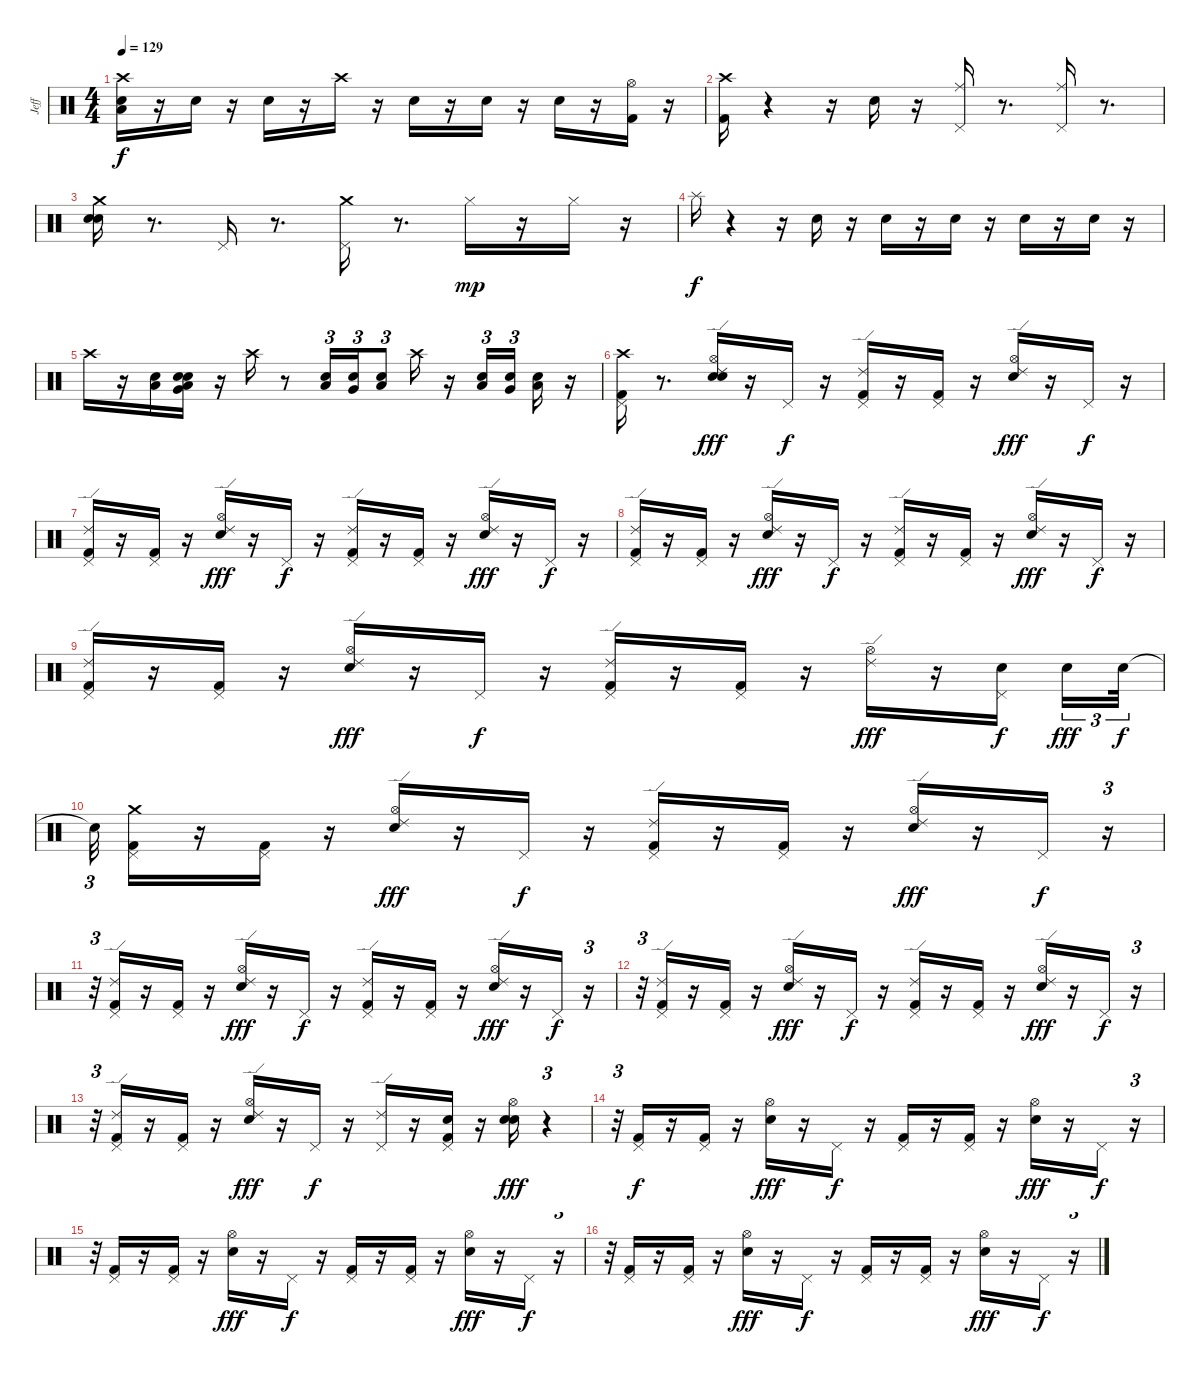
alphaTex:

\track ("Jeff" "Jeff") {instrument percussion}
\staff {score}
\articulation defaults
\ts (4 4)
\tempo 129
\clef neutral
\ks c
("Snare (hit) 2" "Low Tom (hit)" "Crash high (hit)").16{dy f} r.16 "Electric Snare (hit)".16 r.16 "Electric Snare (hit)".16 r.16 "Crash high (hit)".16 r.16 "Electric Snare (hit)".16 r.16 "Electric Snare (hit)".16 r.16 "Electric Snare (hit)".16 r.16 ("Kick (hit) 2" "Hi-Hat (open)").16 r.16 |
("Kick (hit) 2" "Crash high (hit)").16 r.4 r.16 "Electric Snare (hit)".16 r.16 ("Pedal Hi-Hat (hit)" "Ride (middle)").16 r.8{d} ("Pedal Hi-Hat (hit)" "Ride (middle)").16 r.8{d} |
("Snare (hit) 2" "Electric Snare (hit)" "Crash medium (hit)").16 r.8{d} "Pedal Hi-Hat (hit)".16 r.8{d} ("Pedal Hi-Hat (hit)" "Crash medium (hit)").16 r.8{d} "Hi-Hat (closed)".16{dy mp} r.16 "Hi-Hat (closed)".16 r.16 |
"Splash (hit)".16{dy f} r.4 r.16 "Snare (hit) 2".16 r.16 "Snare (hit) 2".16 r.16 "Snare (hit) 2".16 r.16 "Snare (hit) 2".16 r.16 "Snare (hit) 2".16 r.16 |
"Crash high (hit)".16 r.16 ("Snare (hit) 2" "Low Tom (hit)").16 ("Snare (hit) 2" "Very Low Tom (hit)" "Snare (hit) 2" "Low Floor Tom (hit)").16 r.16 "Crash high (hit)".16 r.8 ("Electric Snare (hit)" "Low Tom (hit)").16{tu (3 2)} ("Electric Snare (hit)" "Very Low Tom (hit)").16{tu (3 2)} ("Electric Snare (hit)" "Low Floor Tom (hit)").8{tu (3 2)} "Crash high (hit)".16 r.16 ("Snare (hit) 2" "Low Tom (hit)").16{tu (3 2)} ("Snare (hit) 2" "Very Low Tom (hit)").16{tu (3 2) beam splitsecondary} ("Snare (hit) 2" "Low Floor Tom (hit)").16 r.16 |
("Kick (hit) 2" "Pedal Hi-Hat (hit)" "Crash high (hit)").16 r.8{d} ("Snare (hit) 2" "Electric Snare (hit)" "Hi-Hat (open)" "Ride (edge) 2").16{dy fff} r.16 "Pedal Hi-Hat (hit)".16{dy f} r.16 ("Kick (hit) 2" "Pedal Hi-Hat (hit)" "Ride (edge) 2").16 r.16 ("Kick (hit) 2" "Pedal Hi-Hat (hit)").16 r.16 ("Electric Snare (hit)" "Hi-Hat (open)" "Ride (edge) 2").16{dy fff} r.16 "Pedal Hi-Hat (hit)".16{dy f} r.16 |
("Kick (hit) 2" "Pedal Hi-Hat (hit)" "Ride (edge) 2").16 r.16 ("Kick (hit) 2" "Pedal Hi-Hat (hit)").16 r.16 ("Electric Snare (hit)" "Hi-Hat (open)" "Ride (edge) 2").16{dy fff} r.16 "Pedal Hi-Hat (hit)".16{dy f} r.16 ("Kick (hit) 2" "Pedal Hi-Hat (hit)" "Ride (edge) 2").16 r.16 ("Kick (hit) 2" "Pedal Hi-Hat (hit)").16 r.16 ("Electric Snare (hit)" "Hi-Hat (open)" "Ride (edge) 2").16{dy fff} r.16 "Pedal Hi-Hat (hit)".16{dy f} r.16 |
("Kick (hit) 2" "Pedal Hi-Hat (hit)" "Ride (edge) 2").16 r.16 ("Kick (hit) 2" "Pedal Hi-Hat (hit)").16 r.16 ("Electric Snare (hit)" "Hi-Hat (open)" "Ride (edge) 2").16{dy fff} r.16 "Pedal Hi-Hat (hit)".16{dy f} r.16 ("Kick (hit) 2" "Pedal Hi-Hat (hit)" "Ride (edge) 2").16 r.16 ("Kick (hit) 2" "Pedal Hi-Hat (hit)").16 r.16 ("Electric Snare (hit)" "Hi-Hat (open)" "Ride (edge) 2").16{dy fff} r.16 "Pedal Hi-Hat (hit)".16{dy f} r.16 |
("Kick (hit) 2" "Pedal Hi-Hat (hit)" "Ride (edge) 2").16 r.16 ("Kick (hit) 2" "Pedal Hi-Hat (hit)").16 r.16 ("Electric Snare (hit)" "Hi-Hat (open)" "Ride (edge) 2").16{dy fff} r.16 "Pedal Hi-Hat (hit)".16{dy f} r.16 ("Kick (hit) 2" "Pedal Hi-Hat (hit)" "Ride (edge) 2").16 r.16 ("Kick (hit) 2" "Pedal Hi-Hat (hit)").16 r.16 ("Hi-Hat (open)" "Ride (edge) 2").16{dy fff} r.16 ("Electric Snare (hit)" "Pedal Hi-Hat (hit)").16{dy f beam splitsecondary} "Electric Snare (hit)".16{tu (3 2) dy fff} "Electric Snare (hit)".32{tu (3 2) dy f} |
"Snare (hit)"{t}.32{tu (3 2)} ("Kick (hit) 2" "Pedal Hi-Hat (hit)" "Crash medium (hit)").16 r.16 ("Kick (hit) 2" "Pedal Hi-Hat (hit)").16 r.16 ("Electric Snare (hit)" "Hi-Hat (open)" "Ride (edge) 2").16{dy fff} r.16 "Pedal Hi-Hat (hit)".16{dy f} r.16 ("Kick (hit) 2" "Pedal Hi-Hat (hit)" "Ride (edge) 2").16 r.16 ("Kick (hit) 2" "Pedal Hi-Hat (hit)").16 r.16 ("Electric Snare (hit)" "Hi-Hat (open)" "Ride (edge) 2").16{dy fff} r.16 "Pedal Hi-Hat (hit)".16{dy f} r.16{tu (3 2)} |
r.32{tu (3 2)} ("Kick (hit) 2" "Pedal Hi-Hat (hit)" "Ride (edge) 2").16 r.16 ("Kick (hit) 2" "Pedal Hi-Hat (hit)").16 r.16 ("Electric Snare (hit)" "Hi-Hat (open)" "Ride (edge) 2").16{dy fff} r.16 "Pedal Hi-Hat (hit)".16{dy f} r.16 ("Kick (hit) 2" "Pedal Hi-Hat (hit)" "Ride (edge) 2").16 r.16 ("Kick (hit) 2" "Pedal Hi-Hat (hit)").16 r.16 ("Electric Snare (hit)" "Hi-Hat (open)" "Ride (edge) 2").16{dy fff} r.16 "Pedal Hi-Hat (hit)".16{dy f} r.16{tu (3 2)} |
r.32{tu (3 2)} ("Kick (hit) 2" "Pedal Hi-Hat (hit)" "Ride (edge) 2").16 r.16 ("Kick (hit) 2" "Pedal Hi-Hat (hit)").16 r.16 ("Electric Snare (hit)" "Hi-Hat (open)" "Ride (edge) 2").16{dy fff} r.16 "Pedal Hi-Hat (hit)".16{dy f} r.16 ("Kick (hit) 2" "Pedal Hi-Hat (hit)" "Ride (edge) 2").16 r.16 ("Kick (hit) 2" "Pedal Hi-Hat (hit)").16 r.16 ("Electric Snare (hit)" "Hi-Hat (open)" "Ride (edge) 2").16{dy fff} r.16 "Pedal Hi-Hat (hit)".16{dy f} r.16{tu (3 2)} |
r.32{tu (3 2)} ("Kick (hit) 2" "Pedal Hi-Hat (hit)" "Ride (edge) 2").16 r.16 ("Kick (hit) 2" "Pedal Hi-Hat (hit)").16 r.16 ("Electric Snare (hit)" "Hi-Hat (open)" "Ride (edge) 2").16{dy fff} r.16 "Pedal Hi-Hat (hit)".16{dy f} r.16 ("Pedal Hi-Hat (hit)" "Ride (edge) 2").16 r.16 ("Kick (hit) 2" "Snare (hit) 2" "Pedal Hi-Hat (hit)").16 r.16 ("Snare (hit) 2" "Electric Snare (hit)" "Hi-Hat (open)").16{dy fff} r.4{tu (3 2)} |
r.32{tu (3 2)} ("Kick (hit) 2" "Pedal Hi-Hat (hit)").16{dy f} r.16 ("Kick (hit) 2" "Pedal Hi-Hat (hit)").16 r.16 ("Electric Snare (hit)" "Hi-Hat (open)").16{dy fff} r.16 "Pedal Hi-Hat (hit)".16{dy f} r.16 ("Kick (hit) 2" "Pedal Hi-Hat (hit)").16 r.16 ("Kick (hit) 2" "Pedal Hi-Hat (hit)").16 r.16 ("Electric Snare (hit)" "Hi-Hat (open)").16{dy fff} r.16 "Pedal Hi-Hat (hit)".16{dy f} r.16{tu (3 2)} |
r.32{tu (3 2)} ("Kick (hit) 2" "Pedal Hi-Hat (hit)").16 r.16 ("Kick (hit) 2" "Pedal Hi-Hat (hit)").16 r.16 ("Electric Snare (hit)" "Hi-Hat (open)").16{dy fff} r.16 "Pedal Hi-Hat (hit)".16{dy f} r.16 ("Kick (hit) 2" "Pedal Hi-Hat (hit)").16 r.16 ("Kick (hit) 2" "Pedal Hi-Hat (hit)").16 r.16 ("Electric Snare (hit)" "Hi-Hat (open)").16{dy fff} r.16 "Pedal Hi-Hat (hit)".16{dy f} r.16{tu (3 2)} |
r.32{tu (3 2)} ("Kick (hit) 2" "Pedal Hi-Hat (hit)").16 r.16 ("Kick (hit) 2" "Pedal Hi-Hat (hit)").16 r.16 ("Electric Snare (hit)" "Hi-Hat (open)").16{dy fff} r.16 "Pedal Hi-Hat (hit)".16{dy f} r.16 ("Kick (hit) 2" "Pedal Hi-Hat (hit)").16 r.16 ("Kick (hit) 2" "Pedal Hi-Hat (hit)").16 r.16 ("Electric Snare (hit)" "Hi-Hat (open)").16{dy fff} r.16 "Pedal Hi-Hat (hit)".16{dy f} r.16{tu (3 2)}
